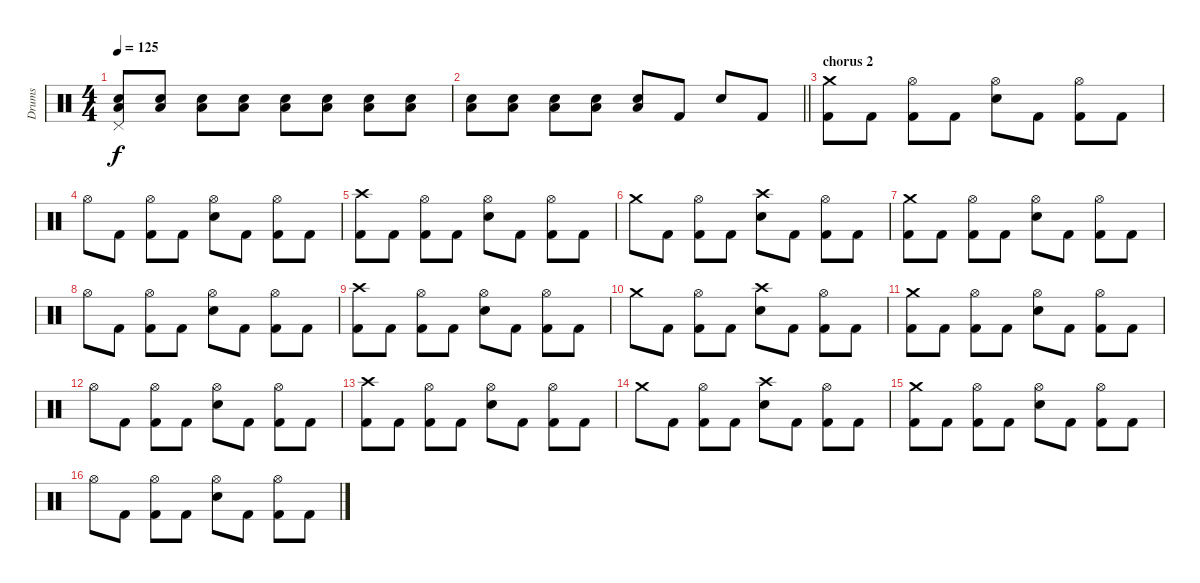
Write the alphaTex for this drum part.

\track ("Drums" "Drums") {instrument percussion}
\staff {score}
\articulation defaults
\ts (4 4)
\tempo 125
\clef neutral
\ks c
("Pedal Hi-Hat (hit)" "Snare (hit) 2" "Low Floor Tom (hit)").8{dy f} ("Snare (hit) 2" "Low Floor Tom (hit)").8 ("Snare (hit) 2" "Low Floor Tom (hit)").8 ("Snare (hit) 2" "Low Floor Tom (hit)").8 ("Snare (hit) 2" "Low Floor Tom (hit)").8 ("Snare (hit) 2" "Low Floor Tom (hit)").8 ("Snare (hit) 2" "Low Floor Tom (hit)").8 ("Snare (hit) 2" "Low Floor Tom (hit)").8 |
\barLineRight lightlight
("Snare (hit) 2" "Low Floor Tom (hit)").8 ("Snare (hit) 2" "Low Floor Tom (hit)").8 ("Snare (hit) 2" "Low Floor Tom (hit)").8 ("Snare (hit) 2" "Low Floor Tom (hit)").8 ("Snare (hit) 2" "Low Floor Tom (hit)").8 "Kick (hit) 2".8 "Snare (hit) 2".8 "Kick (hit) 2".8 |
\section ("" "chorus 2")
("Crash medium (hit)" "Kick (hit) 2").8 "Kick (hit) 2".8 ("Hi-Hat (open)" "Kick (hit) 2").8 "Kick (hit) 2".8 ("Hi-Hat (open)" "Snare (hit) 2").8 "Kick (hit) 2".8 ("Hi-Hat (open)" "Kick (hit) 2").8 "Kick (hit) 2".8 |
"Hi-Hat (open)".8 "Kick (hit) 2".8 ("Hi-Hat (open)" "Kick (hit) 2").8 "Kick (hit) 2".8 ("Hi-Hat (open)" "Snare (hit) 2").8 "Kick (hit) 2".8 ("Hi-Hat (open)" "Kick (hit) 2").8 "Kick (hit) 2".8 |
("Crash high (hit)" "Kick (hit) 2").8 "Kick (hit) 2".8 ("Hi-Hat (open)" "Kick (hit) 2").8 "Kick (hit) 2".8 ("Hi-Hat (open)" "Snare (hit) 2").8 "Kick (hit) 2".8 ("Hi-Hat (open)" "Kick (hit) 2").8 "Kick (hit) 2".8 |
"Crash medium (hit)".8 "Kick (hit) 2".8 ("Hi-Hat (open)" "Kick (hit) 2").8 "Kick (hit) 2".8 ("Crash high (hit)" "Snare (hit) 2").8 "Kick (hit) 2".8 ("Hi-Hat (open)" "Kick (hit) 2").8 "Kick (hit) 2".8 |
("Crash medium (hit)" "Kick (hit) 2").8 "Kick (hit) 2".8 ("Hi-Hat (open)" "Kick (hit) 2").8 "Kick (hit) 2".8 ("Hi-Hat (open)" "Snare (hit) 2").8 "Kick (hit) 2".8 ("Hi-Hat (open)" "Kick (hit) 2").8 "Kick (hit) 2".8 |
"Hi-Hat (open)".8 "Kick (hit) 2".8 ("Hi-Hat (open)" "Kick (hit) 2").8 "Kick (hit) 2".8 ("Hi-Hat (open)" "Snare (hit) 2").8 "Kick (hit) 2".8 ("Hi-Hat (open)" "Kick (hit) 2").8 "Kick (hit) 2".8 |
("Crash high (hit)" "Kick (hit) 2").8 "Kick (hit) 2".8 ("Hi-Hat (open)" "Kick (hit) 2").8 "Kick (hit) 2".8 ("Hi-Hat (open)" "Snare (hit) 2").8 "Kick (hit) 2".8 ("Hi-Hat (open)" "Kick (hit) 2").8 "Kick (hit) 2".8 |
"Crash medium (hit)".8 "Kick (hit) 2".8 ("Hi-Hat (open)" "Kick (hit) 2").8 "Kick (hit) 2".8 ("Crash high (hit)" "Snare (hit) 2").8 "Kick (hit) 2".8 ("Hi-Hat (open)" "Kick (hit) 2").8 "Kick (hit) 2".8 |
("Crash medium (hit)" "Kick (hit) 2").8 "Kick (hit) 2".8 ("Hi-Hat (open)" "Kick (hit) 2").8 "Kick (hit) 2".8 ("Hi-Hat (open)" "Snare (hit) 2").8 "Kick (hit) 2".8 ("Hi-Hat (open)" "Kick (hit) 2").8 "Kick (hit) 2".8 |
"Hi-Hat (open)".8 "Kick (hit) 2".8 ("Hi-Hat (open)" "Kick (hit) 2").8 "Kick (hit) 2".8 ("Hi-Hat (open)" "Snare (hit) 2").8 "Kick (hit) 2".8 ("Hi-Hat (open)" "Kick (hit) 2").8 "Kick (hit) 2".8 |
("Crash high (hit)" "Kick (hit) 2").8 "Kick (hit) 2".8 ("Hi-Hat (open)" "Kick (hit) 2").8 "Kick (hit) 2".8 ("Hi-Hat (open)" "Snare (hit) 2").8 "Kick (hit) 2".8 ("Hi-Hat (open)" "Kick (hit) 2").8 "Kick (hit) 2".8 |
"Crash medium (hit)".8 "Kick (hit) 2".8 ("Hi-Hat (open)" "Kick (hit) 2").8 "Kick (hit) 2".8 ("Crash high (hit)" "Snare (hit) 2").8 "Kick (hit) 2".8 ("Hi-Hat (open)" "Kick (hit) 2").8 "Kick (hit) 2".8 |
("Crash medium (hit)" "Kick (hit) 2").8 "Kick (hit) 2".8 ("Hi-Hat (open)" "Kick (hit) 2").8 "Kick (hit) 2".8 ("Hi-Hat (open)" "Snare (hit) 2").8 "Kick (hit) 2".8 ("Hi-Hat (open)" "Kick (hit) 2").8 "Kick (hit) 2".8 |
"Hi-Hat (open)".8 "Kick (hit) 2".8 ("Hi-Hat (open)" "Kick (hit) 2").8 "Kick (hit) 2".8 ("Hi-Hat (open)" "Snare (hit) 2").8 "Kick (hit) 2".8 ("Hi-Hat (open)" "Kick (hit) 2").8 "Kick (hit) 2".8
